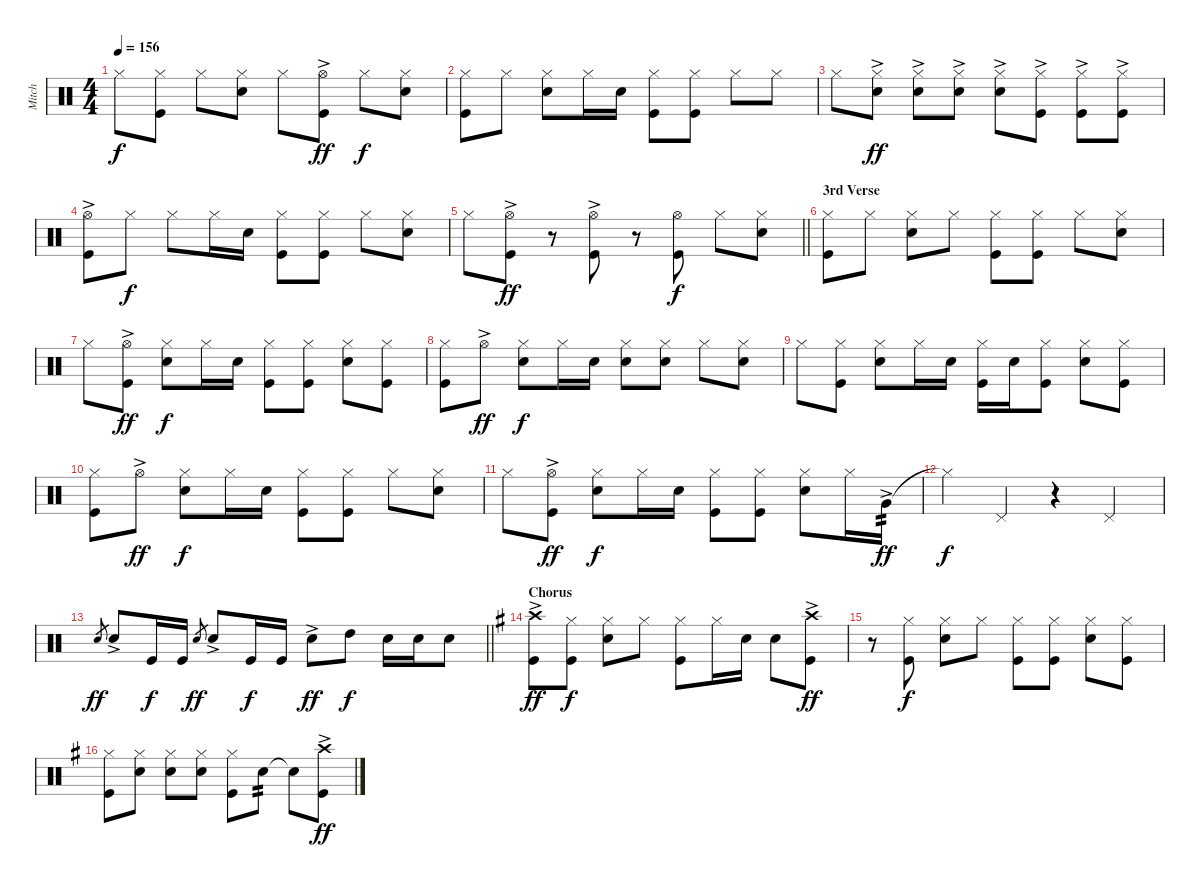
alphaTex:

\track ("Mitch" "Mitch") {instrument percussion}
\staff {score}
\articulation defaults
\ts (4 4)
\tempo 156
\clef neutral
\ks c "Hi-Hat (closed)".8{dy f}
("Hi-Hat (closed)" "Kick (hit)").8 "Hi-Hat (closed)".8 ("Hi-Hat (closed)" "Snare (hit) 2").8 "Hi-Hat (closed)".8 ("Hi-Hat (open)"{ac} "Kick (hit)").8{dy ff} "Hi-Hat (closed)".8{dy f} ("Hi-Hat (closed)" "Snare (hit) 2").8 |
("Hi-Hat (closed)" "Kick (hit)").8 "Hi-Hat (closed)".8 ("Hi-Hat (closed)" "Snare (hit) 2").8 "Hi-Hat (closed)".16 "Snare (hit) 2".16 ("Hi-Hat (closed)" "Kick (hit)").8 ("Hi-Hat (closed)" "Kick (hit)").8 "Hi-Hat (closed)".8 "Hi-Hat (closed)".8 |
"Hi-Hat (closed)".8 ("Hi-Hat (closed)"{ac} "Snare (hit) 2").8{dy ff} ("Hi-Hat (closed)"{ac} "Snare (hit) 2").8 ("Hi-Hat (closed)"{ac} "Snare (hit) 2").8 ("Hi-Hat (closed)"{ac} "Snare (hit) 2").8 ("Hi-Hat (closed)"{ac} "Kick (hit)").8 ("Hi-Hat (closed)"{ac} "Kick (hit)").8 ("Hi-Hat (closed)"{ac} "Kick (hit)").8 |
("Hi-Hat (open)"{ac} "Kick (hit)").8 "Hi-Hat (closed)".8{dy f} "Hi-Hat (closed)".8 "Hi-Hat (closed)".16 "Snare (hit) 2".16 ("Hi-Hat (closed)" "Kick (hit)").8 ("Hi-Hat (closed)" "Kick (hit)").8 "Hi-Hat (closed)".8 ("Hi-Hat (closed)" "Snare (hit) 2").8 |
\barLineRight lightlight "Hi-Hat (closed)".8
("Hi-Hat (open)"{ac} "Kick (hit)").8{dy ff} r.8 ("Hi-Hat (open)"{ac} "Kick (hit)").8 r.8 ("Hi-Hat (open)" "Kick (hit)").8{dy f} "Hi-Hat (closed)".8 ("Hi-Hat (closed)" "Snare (hit) 2").8 |
\section ("" "3rd Verse")
("Hi-Hat (closed)" "Kick (hit)").8 "Hi-Hat (closed)".8 ("Hi-Hat (closed)" "Snare (hit) 2").8 "Hi-Hat (closed)".8 ("Hi-Hat (closed)" "Kick (hit)").8 ("Hi-Hat (closed)" "Kick (hit)").8 "Hi-Hat (closed)".8 ("Hi-Hat (closed)" "Snare (hit) 2").8 |
"Hi-Hat (closed)".8 ("Hi-Hat (open)"{ac} "Kick (hit)").8{dy ff} ("Hi-Hat (closed)" "Snare (hit) 2").8{dy f} "Hi-Hat (closed)".16 "Snare (hit) 2".16 ("Hi-Hat (closed)" "Kick (hit)").8 ("Hi-Hat (closed)" "Kick (hit)").8 ("Hi-Hat (closed)" "Snare (hit) 2").8 ("Hi-Hat (closed)" "Kick (hit)").8 |
("Hi-Hat (closed)" "Kick (hit)").8 "Hi-Hat (open)"{ac}.8{dy ff} ("Hi-Hat (closed)" "Snare (hit) 2").8{dy f} "Hi-Hat (closed)".16 "Snare (hit) 2".16 ("Hi-Hat (closed)" "Snare (hit) 2").8 ("Hi-Hat (closed)" "Snare (hit) 2").8 "Hi-Hat (closed)".8 ("Hi-Hat (closed)" "Snare (hit) 2").8 |
"Hi-Hat (closed)".8 ("Hi-Hat (closed)" "Kick (hit)").8 ("Hi-Hat (closed)" "Snare (hit) 2").8 "Hi-Hat (closed)".16 "Snare (hit) 2".16 ("Hi-Hat (closed)" "Kick (hit)").16 "Snare (hit) 2".16 ("Hi-Hat (closed)" "Kick (hit)").8 ("Hi-Hat (closed)" "Snare (hit) 2").8 ("Hi-Hat (closed)" "Kick (hit)").8 |
("Hi-Hat (closed)" "Kick (hit)").8 "Hi-Hat (open)"{ac}.8{dy ff} ("Hi-Hat (closed)" "Snare (hit) 2").8{dy f} "Hi-Hat (closed)".16 "Snare (hit) 2".16 ("Hi-Hat (closed)" "Kick (hit)").8 ("Hi-Hat (closed)" "Kick (hit)").8 "Hi-Hat (closed)".8 ("Hi-Hat (closed)" "Snare (hit) 2").8 |
"Hi-Hat (closed)".8 ("Hi-Hat (open)"{ac} "Kick (hit)").8{dy ff} ("Hi-Hat (closed)" "Snare (hit) 2").8{dy f} "Hi-Hat (closed)".16 "Snare (hit) 2".16 ("Hi-Hat (closed)" "Kick (hit)").8 ("Hi-Hat (closed)" "Kick (hit)").8 ("Hi-Hat (closed)" "Snare (hit) 2").8 "Hi-Hat (closed)".16 "Very Low Tom (hit)"{ac}.16{tp 2 dy ff} |
"Hi-Hat (closed)"{t}.4{dy f} "Pedal Hi-Hat (hit)".4 r.4 "Pedal Hi-Hat (hit)".4 |
\barLineRight lightlight "Snare (hit) 2".8{gr dy ff} "Snare (hit) 2"{ac}.8 "Kick (hit)".16{dy f} "Kick (hit)".16 "Snare (hit) 2".8{gr dy ff} "Snare (hit) 2"{ac}.8 "Kick (hit)".16{dy f} "Kick (hit)".16 "Snare (hit) 2"{ac}.8{dy ff} "High Tom (hit)".8{dy f} "Snare (hit) 2".16 "Snare (hit) 2".16 "Snare (hit) 2".8
|
\section ("" "Chorus")
\ks g
("Crash high (hit)"{ac} "Kick (hit)").8{dy ff} ("Hi-Hat (closed)" "Kick (hit)").8{dy f} ("Hi-Hat (closed)" "Snare (hit) 2").8 "Hi-Hat (closed)".8 ("Hi-Hat (closed)" "Kick (hit)").8 "Hi-Hat (closed)".16 "Snare (hit) 2".16 "Snare (hit) 2".8 ("Crash high (hit)"{ac} "Kick (hit)").8{dy ff} |
r.8 ("Hi-Hat (closed)" "Kick (hit)").8{dy f} ("Hi-Hat (closed)" "Snare (hit) 2").8 "Hi-Hat (closed)".8 ("Hi-Hat (closed)" "Kick (hit)").8 ("Hi-Hat (closed)" "Kick (hit)").8 ("Hi-Hat (closed)" "Snare (hit) 2").8 ("Hi-Hat (closed)" "Kick (hit)").8 |
("Hi-Hat (closed)" "Kick (hit)").8 ("Hi-Hat (closed)" "Snare (hit) 2").8 ("Hi-Hat (closed)" "Snare (hit) 2").8 ("Hi-Hat (closed)" "Snare (hit) 2").8 ("Hi-Hat (closed)" "Kick (hit)").8 "Snare (hit) 2".8{tp 2} "Snare (hit) 2"{t}.8 ("Crash high (hit)"{ac} "Kick (hit)").8{dy ff}
